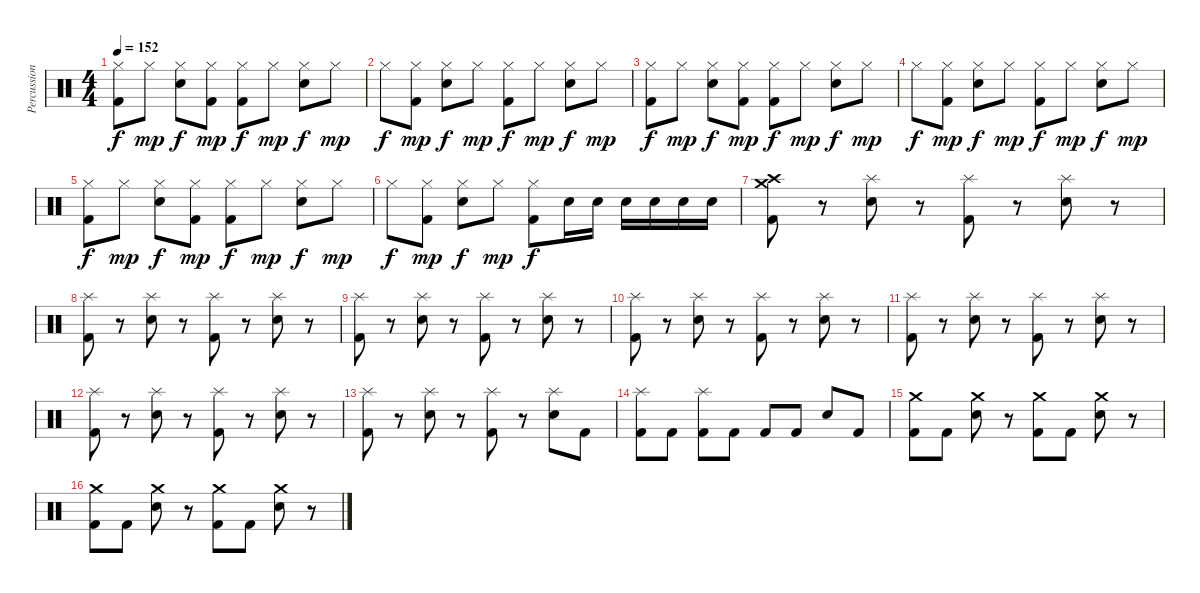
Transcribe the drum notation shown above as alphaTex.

\track ("Percussions" "Percussion") {instrument percussion}
\staff {score}
\articulation defaults
\ts (4 4)
\tempo 152
\clef neutral
\ks c
("Hi-Hat (closed)" "Kick (hit) 2").8{dy f} "Hi-Hat (closed)".8{dy mp} ("Hi-Hat (closed)" "Electric Snare (hit)").8{dy f} ("Hi-Hat (closed)" "Kick (hit) 2").8{dy mp} ("Hi-Hat (closed)" "Kick (hit) 2").8{dy f} "Hi-Hat (closed)".8{dy mp} ("Hi-Hat (closed)" "Electric Snare (hit)").8{dy f} "Hi-Hat (closed)".8{dy mp} |
"Hi-Hat (closed)".8{dy f} ("Hi-Hat (closed)" "Kick (hit) 2").8{dy mp} ("Hi-Hat (closed)" "Electric Snare (hit)").8{dy f} "Hi-Hat (closed)".8{dy mp} ("Hi-Hat (closed)" "Kick (hit) 2").8{dy f} "Hi-Hat (closed)".8{dy mp} ("Hi-Hat (closed)" "Electric Snare (hit)").8{dy f} "Hi-Hat (closed)".8{dy mp} |
("Hi-Hat (closed)" "Kick (hit) 2").8{dy f} "Hi-Hat (closed)".8{dy mp} ("Hi-Hat (closed)" "Electric Snare (hit)").8{dy f} ("Hi-Hat (closed)" "Kick (hit) 2").8{dy mp} ("Hi-Hat (closed)" "Kick (hit) 2").8{dy f} "Hi-Hat (closed)".8{dy mp} ("Hi-Hat (closed)" "Electric Snare (hit)").8{dy f} "Hi-Hat (closed)".8{dy mp} |
"Hi-Hat (closed)".8{dy f} ("Hi-Hat (closed)" "Kick (hit) 2").8{dy mp} ("Hi-Hat (closed)" "Electric Snare (hit)").8{dy f} "Hi-Hat (closed)".8{dy mp} ("Hi-Hat (closed)" "Kick (hit) 2").8{dy f} "Hi-Hat (closed)".8{dy mp} ("Hi-Hat (closed)" "Electric Snare (hit)").8{dy f} "Hi-Hat (closed)".8{dy mp} |
("Hi-Hat (closed)" "Kick (hit) 2").8{dy f} "Hi-Hat (closed)".8{dy mp} ("Hi-Hat (closed)" "Electric Snare (hit)").8{dy f} ("Hi-Hat (closed)" "Kick (hit) 2").8{dy mp} ("Hi-Hat (closed)" "Kick (hit) 2").8{dy f} "Hi-Hat (closed)".8{dy mp} ("Hi-Hat (closed)" "Electric Snare (hit)").8{dy f} "Hi-Hat (closed)".8{dy mp} |
"Hi-Hat (closed)".8{dy f} ("Hi-Hat (closed)" "Kick (hit) 2").8{dy mp} ("Hi-Hat (closed)" "Electric Snare (hit)").8{dy f} "Hi-Hat (closed)".8{dy mp} ("Hi-Hat (closed)" "Kick (hit) 2").8{dy f} "Electric Snare (hit)".16 "Electric Snare (hit)".16 "Electric Snare (hit)".16 "Electric Snare (hit)".16 "Electric Snare (hit)".16 "Electric Snare (hit)".16 |
("Crash medium (hit)" "Crash high (hit)" "Kick (hit) 2").8 r.8 ("Splash (hit)" "Electric Snare (hit)").8 r.8 ("Splash (hit)" "Kick (hit) 2").8 r.8 ("Splash (hit)" "Electric Snare (hit)").8 r.8 |
("Splash (hit)" "Kick (hit) 2").8 r.8 ("Splash (hit)" "Electric Snare (hit)").8 r.8 ("Splash (hit)" "Kick (hit) 2").8 r.8 ("Splash (hit)" "Electric Snare (hit)").8 r.8 |
("Splash (hit)" "Kick (hit) 2").8 r.8 ("Splash (hit)" "Electric Snare (hit)").8 r.8 ("Splash (hit)" "Kick (hit) 2").8 r.8 ("Splash (hit)" "Electric Snare (hit)").8 r.8 |
("Splash (hit)" "Kick (hit) 2").8 r.8 ("Splash (hit)" "Electric Snare (hit)").8 r.8 ("Splash (hit)" "Kick (hit) 2").8 r.8 ("Splash (hit)" "Electric Snare (hit)").8 r.8 |
("Splash (hit)" "Kick (hit) 2").8 r.8 ("Splash (hit)" "Electric Snare (hit)").8 r.8 ("Splash (hit)" "Kick (hit) 2").8 r.8 ("Splash (hit)" "Electric Snare (hit)").8 r.8 |
("Splash (hit)" "Kick (hit) 2").8 r.8 ("Splash (hit)" "Electric Snare (hit)").8 r.8 ("Splash (hit)" "Kick (hit) 2").8 r.8 ("Splash (hit)" "Electric Snare (hit)").8 r.8 |
("Splash (hit)" "Kick (hit) 2").8 r.8 ("Splash (hit)" "Electric Snare (hit)").8 r.8 ("Splash (hit)" "Kick (hit) 2").8 r.8 ("Splash (hit)" "Electric Snare (hit)").8 "Kick (hit) 2".8 |
("Splash (hit)" "Kick (hit) 2").8 "Kick (hit) 2".8 ("Splash (hit)" "Kick (hit) 2").8 "Kick (hit) 2".8 "Kick (hit) 2".8 "Kick (hit) 2".8 "Electric Snare (hit)".8 "Kick (hit) 2".8 |
("Crash medium (hit)" "Kick (hit) 2").8 "Kick (hit) 2".8 ("Crash medium (hit)" "Electric Snare (hit)").8 r.8 ("Crash medium (hit)" "Kick (hit) 2").8 "Kick (hit) 2".8 ("Crash medium (hit)" "Electric Snare (hit)").8 r.8 |
("Crash medium (hit)" "Kick (hit) 2").8 "Kick (hit) 2".8 ("Crash medium (hit)" "Electric Snare (hit)").8 r.8 ("Crash medium (hit)" "Kick (hit) 2").8 "Kick (hit) 2".8 ("Crash medium (hit)" "Electric Snare (hit)").8 r.8
